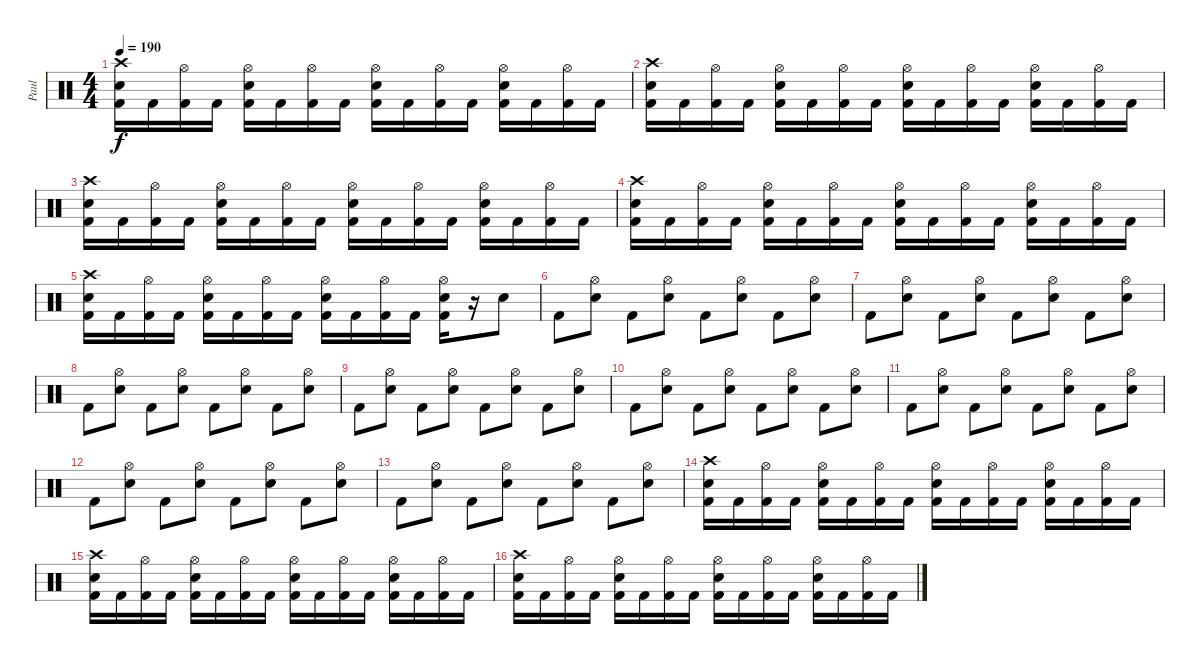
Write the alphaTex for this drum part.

\track ("Paul" "Paul") {instrument percussion}
\staff {score}
\articulation defaults
\ts (4 4)
\tempo 190
\clef neutral
\ks c
("Crash high (hit)" "Snare (hit) 2" "Kick (hit) 2").16{dy f} "Kick (hit) 2".16 ("Hi-Hat (open)" "Kick (hit) 2").16 "Kick (hit) 2".16 ("Hi-Hat (open)" "Snare (hit) 2" "Kick (hit) 2").16 "Kick (hit) 2".16 ("Hi-Hat (open)" "Kick (hit) 2").16 "Kick (hit) 2".16 ("Hi-Hat (open)" "Snare (hit) 2" "Kick (hit) 2").16 "Kick (hit) 2".16 ("Hi-Hat (open)" "Kick (hit) 2").16 "Kick (hit) 2".16 ("Hi-Hat (open)" "Snare (hit) 2" "Kick (hit) 2").16 "Kick (hit) 2".16 ("Hi-Hat (open)" "Kick (hit) 2").16 "Kick (hit) 2".16 |
("Crash high (hit)" "Snare (hit) 2" "Kick (hit) 2").16 "Kick (hit) 2".16 ("Hi-Hat (open)" "Kick (hit) 2").16 "Kick (hit) 2".16 ("Hi-Hat (open)" "Snare (hit) 2" "Kick (hit) 2").16 "Kick (hit) 2".16 ("Hi-Hat (open)" "Kick (hit) 2").16 "Kick (hit) 2".16 ("Hi-Hat (open)" "Snare (hit) 2" "Kick (hit) 2").16 "Kick (hit) 2".16 ("Hi-Hat (open)" "Kick (hit) 2").16 "Kick (hit) 2".16 ("Hi-Hat (open)" "Snare (hit) 2" "Kick (hit) 2").16 "Kick (hit) 2".16 ("Hi-Hat (open)" "Kick (hit) 2").16 "Kick (hit) 2".16 |
("Crash high (hit)" "Snare (hit) 2" "Kick (hit) 2").16 "Kick (hit) 2".16 ("Hi-Hat (open)" "Kick (hit) 2").16 "Kick (hit) 2".16 ("Hi-Hat (open)" "Snare (hit) 2" "Kick (hit) 2").16 "Kick (hit) 2".16 ("Hi-Hat (open)" "Kick (hit) 2").16 "Kick (hit) 2".16 ("Hi-Hat (open)" "Snare (hit) 2" "Kick (hit) 2").16 "Kick (hit) 2".16 ("Hi-Hat (open)" "Kick (hit) 2").16 "Kick (hit) 2".16 ("Hi-Hat (open)" "Snare (hit) 2" "Kick (hit) 2").16 "Kick (hit) 2".16 ("Hi-Hat (open)" "Kick (hit) 2").16 "Kick (hit) 2".16 |
("Crash high (hit)" "Snare (hit) 2" "Kick (hit) 2").16 "Kick (hit) 2".16 ("Hi-Hat (open)" "Kick (hit) 2").16 "Kick (hit) 2".16 ("Hi-Hat (open)" "Snare (hit) 2" "Kick (hit) 2").16 "Kick (hit) 2".16 ("Hi-Hat (open)" "Kick (hit) 2").16 "Kick (hit) 2".16 ("Hi-Hat (open)" "Snare (hit) 2" "Kick (hit) 2").16 "Kick (hit) 2".16 ("Hi-Hat (open)" "Kick (hit) 2").16 "Kick (hit) 2".16 ("Hi-Hat (open)" "Snare (hit) 2" "Kick (hit) 2").16 "Kick (hit) 2".16 ("Hi-Hat (open)" "Kick (hit) 2").16 "Kick (hit) 2".16 |
("Crash high (hit)" "Snare (hit) 2" "Kick (hit) 2").16 "Kick (hit) 2".16 ("Hi-Hat (open)" "Kick (hit) 2").16 "Kick (hit) 2".16 ("Hi-Hat (open)" "Snare (hit) 2" "Kick (hit) 2").16 "Kick (hit) 2".16 ("Hi-Hat (open)" "Kick (hit) 2").16 "Kick (hit) 2".16 ("Hi-Hat (open)" "Snare (hit) 2" "Kick (hit) 2").16 "Kick (hit) 2".16 ("Hi-Hat (open)" "Kick (hit) 2").16 "Kick (hit) 2".16 ("Hi-Hat (open)" "Snare (hit) 2" "Kick (hit) 2").16 r.16 "Snare (hit) 2".8 |
"Kick (hit) 2".8 ("Hi-Hat (open)" "Snare (hit) 2").8 "Kick (hit) 2".8 ("Hi-Hat (open)" "Snare (hit) 2").8 "Kick (hit) 2".8 ("Hi-Hat (open)" "Snare (hit) 2").8 "Kick (hit) 2".8 ("Hi-Hat (open)" "Snare (hit) 2").8 |
"Kick (hit) 2".8 ("Hi-Hat (open)" "Snare (hit) 2").8 "Kick (hit) 2".8 ("Hi-Hat (open)" "Snare (hit) 2").8 "Kick (hit) 2".8 ("Hi-Hat (open)" "Snare (hit) 2").8 "Kick (hit) 2".8 ("Hi-Hat (open)" "Snare (hit) 2").8 |
"Kick (hit) 2".8 ("Hi-Hat (open)" "Snare (hit) 2").8 "Kick (hit) 2".8 ("Hi-Hat (open)" "Snare (hit) 2").8 "Kick (hit) 2".8 ("Hi-Hat (open)" "Snare (hit) 2").8 "Kick (hit) 2".8 ("Hi-Hat (open)" "Snare (hit) 2").8 |
"Kick (hit) 2".8 ("Hi-Hat (open)" "Snare (hit) 2").8 "Kick (hit) 2".8 ("Hi-Hat (open)" "Snare (hit) 2").8 "Kick (hit) 2".8 ("Hi-Hat (open)" "Snare (hit) 2").8 "Kick (hit) 2".8 ("Hi-Hat (open)" "Snare (hit) 2").8 |
"Kick (hit) 2".8 ("Hi-Hat (open)" "Snare (hit) 2").8 "Kick (hit) 2".8 ("Hi-Hat (open)" "Snare (hit) 2").8 "Kick (hit) 2".8 ("Hi-Hat (open)" "Snare (hit) 2").8 "Kick (hit) 2".8 ("Hi-Hat (open)" "Snare (hit) 2").8 |
"Kick (hit) 2".8 ("Hi-Hat (open)" "Snare (hit) 2").8 "Kick (hit) 2".8 ("Hi-Hat (open)" "Snare (hit) 2").8 "Kick (hit) 2".8 ("Hi-Hat (open)" "Snare (hit) 2").8 "Kick (hit) 2".8 ("Hi-Hat (open)" "Snare (hit) 2").8 |
"Kick (hit) 2".8 ("Hi-Hat (open)" "Snare (hit) 2").8 "Kick (hit) 2".8 ("Hi-Hat (open)" "Snare (hit) 2").8 "Kick (hit) 2".8 ("Hi-Hat (open)" "Snare (hit) 2").8 "Kick (hit) 2".8 ("Hi-Hat (open)" "Snare (hit) 2").8 |
"Kick (hit) 2".8 ("Hi-Hat (open)" "Snare (hit) 2").8 "Kick (hit) 2".8 ("Hi-Hat (open)" "Snare (hit) 2").8 "Kick (hit) 2".8 ("Hi-Hat (open)" "Snare (hit) 2").8 "Kick (hit) 2".8 ("Hi-Hat (open)" "Snare (hit) 2").8 |
("Crash high (hit)" "Snare (hit) 2" "Kick (hit) 2").16 "Kick (hit) 2".16 ("Hi-Hat (open)" "Kick (hit) 2").16 "Kick (hit) 2".16 ("Hi-Hat (open)" "Snare (hit) 2" "Kick (hit) 2").16 "Kick (hit) 2".16 ("Hi-Hat (open)" "Kick (hit) 2").16 "Kick (hit) 2".16 ("Hi-Hat (open)" "Snare (hit) 2" "Kick (hit) 2").16 "Kick (hit) 2".16 ("Hi-Hat (open)" "Kick (hit) 2").16 "Kick (hit) 2".16 ("Hi-Hat (open)" "Snare (hit) 2" "Kick (hit) 2").16 "Kick (hit) 2".16 ("Hi-Hat (open)" "Kick (hit) 2").16 "Kick (hit) 2".16 |
("Crash high (hit)" "Snare (hit) 2" "Kick (hit) 2").16 "Kick (hit) 2".16 ("Hi-Hat (open)" "Kick (hit) 2").16 "Kick (hit) 2".16 ("Hi-Hat (open)" "Snare (hit) 2" "Kick (hit) 2").16 "Kick (hit) 2".16 ("Hi-Hat (open)" "Kick (hit) 2").16 "Kick (hit) 2".16 ("Hi-Hat (open)" "Snare (hit) 2" "Kick (hit) 2").16 "Kick (hit) 2".16 ("Hi-Hat (open)" "Kick (hit) 2").16 "Kick (hit) 2".16 ("Hi-Hat (open)" "Snare (hit) 2" "Kick (hit) 2").16 "Kick (hit) 2".16 ("Hi-Hat (open)" "Kick (hit) 2").16 "Kick (hit) 2".16 |
("Crash high (hit)" "Snare (hit) 2" "Kick (hit) 2").16 "Kick (hit) 2".16 ("Hi-Hat (open)" "Kick (hit) 2").16 "Kick (hit) 2".16 ("Hi-Hat (open)" "Snare (hit) 2" "Kick (hit) 2").16 "Kick (hit) 2".16 ("Hi-Hat (open)" "Kick (hit) 2").16 "Kick (hit) 2".16 ("Hi-Hat (open)" "Snare (hit) 2" "Kick (hit) 2").16 "Kick (hit) 2".16 ("Hi-Hat (open)" "Kick (hit) 2").16 "Kick (hit) 2".16 ("Hi-Hat (open)" "Snare (hit) 2" "Kick (hit) 2").16 "Kick (hit) 2".16 ("Hi-Hat (open)" "Kick (hit) 2").16 "Kick (hit) 2".16
